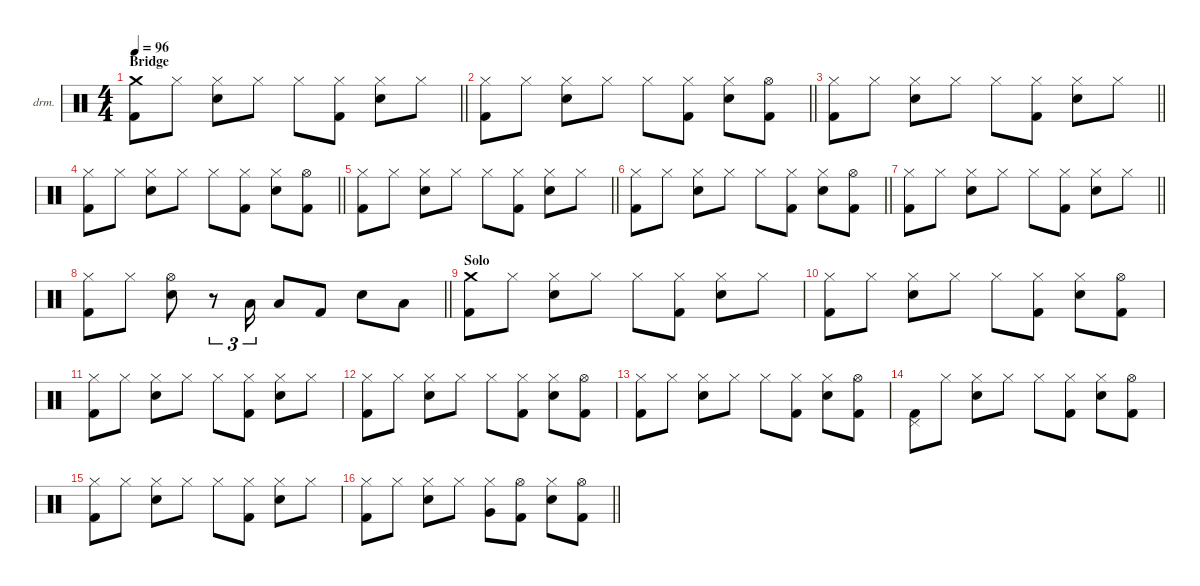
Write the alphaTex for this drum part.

\defaultSystemsLayout 4
\hideDynamics
\bracketExtendMode nobrackets
\firstSystemTrackNameOrientation horizontal
\otherSystemsTrackNameOrientation horizontal
\track ("Percussion" "drm.") {instrument percussion}
\staff {score}
\articulation defaults
\ts (4 4)
\section ("" "Bridge")
\tempo 96
\clef neutral
\barLineRight lightlight
\ks c
("Crash medium (hit)" "Kick (hit) 2").8{dy f beam Down} "Hi-Hat (closed)".8{beam Down} ("Hi-Hat (closed)" "Snare (hit) 2").8{beam Down} "Hi-Hat (closed)".8{beam Down} "Hi-Hat (closed)".8{beam Down} ("Hi-Hat (closed)" "Kick (hit) 2").8{beam Down} ("Hi-Hat (closed)" "Snare (hit) 2").8{beam Down} "Hi-Hat (closed)".8{beam Down} |
\barLineRight lightlight
("Hi-Hat (closed)" "Kick (hit) 2").8{beam Down} "Hi-Hat (closed)".8{beam Down} ("Hi-Hat (closed)" "Snare (hit) 2").8{beam Down} "Hi-Hat (closed)".8{beam Down} "Hi-Hat (closed)".8{beam Down} ("Hi-Hat (closed)" "Kick (hit) 2").8{beam Down} ("Hi-Hat (closed)" "Snare (hit) 2").8{beam Down} ("Hi-Hat (open)" "Kick (hit) 2").8{dy mf beam Down} |
\barLineRight lightlight
("Hi-Hat (closed)" "Kick (hit) 2").8{dy f beam Down} "Hi-Hat (closed)".8{beam Down} ("Hi-Hat (closed)" "Snare (hit) 2").8{beam Down} "Hi-Hat (closed)".8{beam Down} "Hi-Hat (closed)".8{beam Down} ("Hi-Hat (closed)" "Kick (hit) 2").8{beam Down} ("Hi-Hat (closed)" "Snare (hit) 2").8{beam Down} "Hi-Hat (closed)".8{beam Down} |
\barLineRight lightlight
("Hi-Hat (closed)" "Kick (hit) 2").8{beam Down} "Hi-Hat (closed)".8{beam Down} ("Hi-Hat (closed)" "Snare (hit) 2").8{beam Down} "Hi-Hat (closed)".8{beam Down} "Hi-Hat (closed)".8{beam Down} ("Hi-Hat (closed)" "Kick (hit) 2").8{beam Down} ("Hi-Hat (closed)" "Snare (hit) 2").8{beam Down} ("Hi-Hat (open)" "Kick (hit) 2").8{dy mf beam Down} |
\barLineRight lightlight
("Hi-Hat (closed)" "Kick (hit) 2").8{dy f beam Down} "Hi-Hat (closed)".8{beam Down} ("Hi-Hat (closed)" "Snare (hit) 2").8{beam Down} "Hi-Hat (closed)".8{beam Down} "Hi-Hat (closed)".8{beam Down} ("Hi-Hat (closed)" "Kick (hit) 2").8{beam Down} ("Hi-Hat (closed)" "Snare (hit) 2").8{beam Down} "Hi-Hat (closed)".8{beam Down} |
\barLineRight lightlight
("Hi-Hat (closed)" "Kick (hit) 2").8{beam Down} "Hi-Hat (closed)".8{beam Down} ("Hi-Hat (closed)" "Snare (hit) 2").8{beam Down} "Hi-Hat (closed)".8{beam Down} "Hi-Hat (closed)".8{beam Down} ("Hi-Hat (closed)" "Kick (hit) 2").8{beam Down} ("Hi-Hat (closed)" "Snare (hit) 2").8{beam Down} ("Hi-Hat (open)" "Kick (hit) 2").8{dy mf beam Down} |
\barLineRight lightlight
("Hi-Hat (closed)" "Kick (hit) 2").8{dy f beam Down} "Hi-Hat (closed)".8{beam Down} ("Hi-Hat (closed)" "Snare (hit) 2").8{beam Down} "Hi-Hat (closed)".8{beam Down} "Hi-Hat (closed)".8{beam Down} ("Hi-Hat (closed)" "Kick (hit) 2").8{beam Down} ("Hi-Hat (closed)" "Snare (hit) 2").8{beam Down} "Hi-Hat (closed)".8{beam Down} |
\barLineRight lightlight
("Hi-Hat (closed)" "Kick (hit) 2").8{beam Down} "Hi-Hat (closed)".8{beam Down} ("Hi-Hat (open)" "Snare (hit) 2").8{beam Down} r.8{tu (3 2) beam Down} "Low Tom (hit)".16{tu (3 2) beam Up} "Low Tom (hit)".8{beam Up} "Kick (hit) 2".8{beam Up} "Snare (hit) 2".8{beam Down} "Low Tom (hit)".8{beam Down} |
\section ("" "Solo")
("Crash medium (hit)" "Kick (hit) 2").8{beam Down} "Hi-Hat (closed)".8{beam Down} ("Hi-Hat (closed)" "Snare (hit) 2").8{beam Down} "Hi-Hat (closed)".8{beam Down} "Hi-Hat (closed)".8{beam Down} ("Hi-Hat (closed)" "Kick (hit) 2").8{beam Down} ("Hi-Hat (closed)" "Snare (hit) 2").8{beam Down} "Hi-Hat (closed)".8{beam Down} |
("Hi-Hat (closed)" "Kick (hit) 2").8{beam Down} "Hi-Hat (closed)".8{beam Down} ("Hi-Hat (closed)" "Snare (hit) 2").8{beam Down} "Hi-Hat (closed)".8{beam Down} "Hi-Hat (closed)".8{beam Down} ("Hi-Hat (closed)" "Kick (hit) 2").8{beam Down} ("Hi-Hat (closed)" "Snare (hit) 2").8{beam Down} ("Hi-Hat (open)" "Kick (hit) 2").8{dy mf beam Down} |
("Hi-Hat (closed)" "Kick (hit) 2").8{dy f beam Down} "Hi-Hat (closed)".8{beam Down} ("Hi-Hat (closed)" "Snare (hit) 2").8{beam Down} "Hi-Hat (closed)".8{beam Down} "Hi-Hat (closed)".8{beam Down} ("Hi-Hat (closed)" "Kick (hit) 2").8{beam Down} ("Hi-Hat (closed)" "Snare (hit) 2").8{beam Down} "Hi-Hat (closed)".8{beam Down} |
("Hi-Hat (closed)" "Kick (hit) 2").8{beam Down} "Hi-Hat (closed)".8{beam Down} ("Hi-Hat (closed)" "Snare (hit) 2").8{beam Down} "Hi-Hat (closed)".8{beam Down} "Hi-Hat (closed)".8{beam Down} ("Hi-Hat (closed)" "Kick (hit) 2").8{beam Down} ("Hi-Hat (closed)" "Snare (hit) 2").8{beam Down} ("Hi-Hat (open)" "Kick (hit) 2").8{dy mf beam Down} |
("Hi-Hat (closed)" "Kick (hit) 2").8{dy f beam Down} "Hi-Hat (closed)".8{beam Down} ("Hi-Hat (closed)" "Snare (hit) 2").8{beam Down} "Hi-Hat (closed)".8{beam Down} "Hi-Hat (closed)".8{beam Down} ("Hi-Hat (closed)" "Kick (hit) 2").8{beam Down} ("Hi-Hat (closed)" "Snare (hit) 2").8{beam Down} ("Hi-Hat (open)" "Kick (hit) 2").8{dy mf beam Down} |
("Pedal Hi-Hat (hit)" "Kick (hit) 2").8{dy f beam Down} "Hi-Hat (closed)".8{beam Down} ("Hi-Hat (closed)" "Snare (hit) 2").8{beam Down} "Hi-Hat (closed)".8{beam Down} "Hi-Hat (closed)".8{beam Down} ("Hi-Hat (closed)" "Kick (hit) 2").8{beam Down} ("Hi-Hat (closed)" "Snare (hit) 2").8{beam Down} ("Hi-Hat (open)" "Kick (hit) 2").8{dy mf beam Down} |
("Hi-Hat (closed)" "Kick (hit) 2").8{dy f beam Down} "Hi-Hat (closed)".8{beam Down} ("Hi-Hat (closed)" "Snare (hit) 2").8{beam Down} "Hi-Hat (closed)".8{beam Down} "Hi-Hat (closed)".8{beam Down} ("Hi-Hat (closed)" "Kick (hit) 2").8{beam Down} ("Hi-Hat (closed)" "Snare (hit) 2").8{beam Down} "Hi-Hat (closed)".8{beam Down} |
\barLineRight lightlight
("Hi-Hat (closed)" "Kick (hit) 2").8{beam Down} "Hi-Hat (closed)".8{beam Down} ("Hi-Hat (closed)" "Snare (hit) 2").8{beam Down} "Hi-Hat (closed)".8{beam Down} ("Hi-Hat (closed)" "Very Low Tom (hit)").8{beam Down} ("Hi-Hat (open)" "Kick (hit) 2").8{beam Down} ("Hi-Hat (closed)" "Snare (hit) 2").8{beam Down} ("Hi-Hat (open)" "Kick (hit) 2").8{beam Down}
